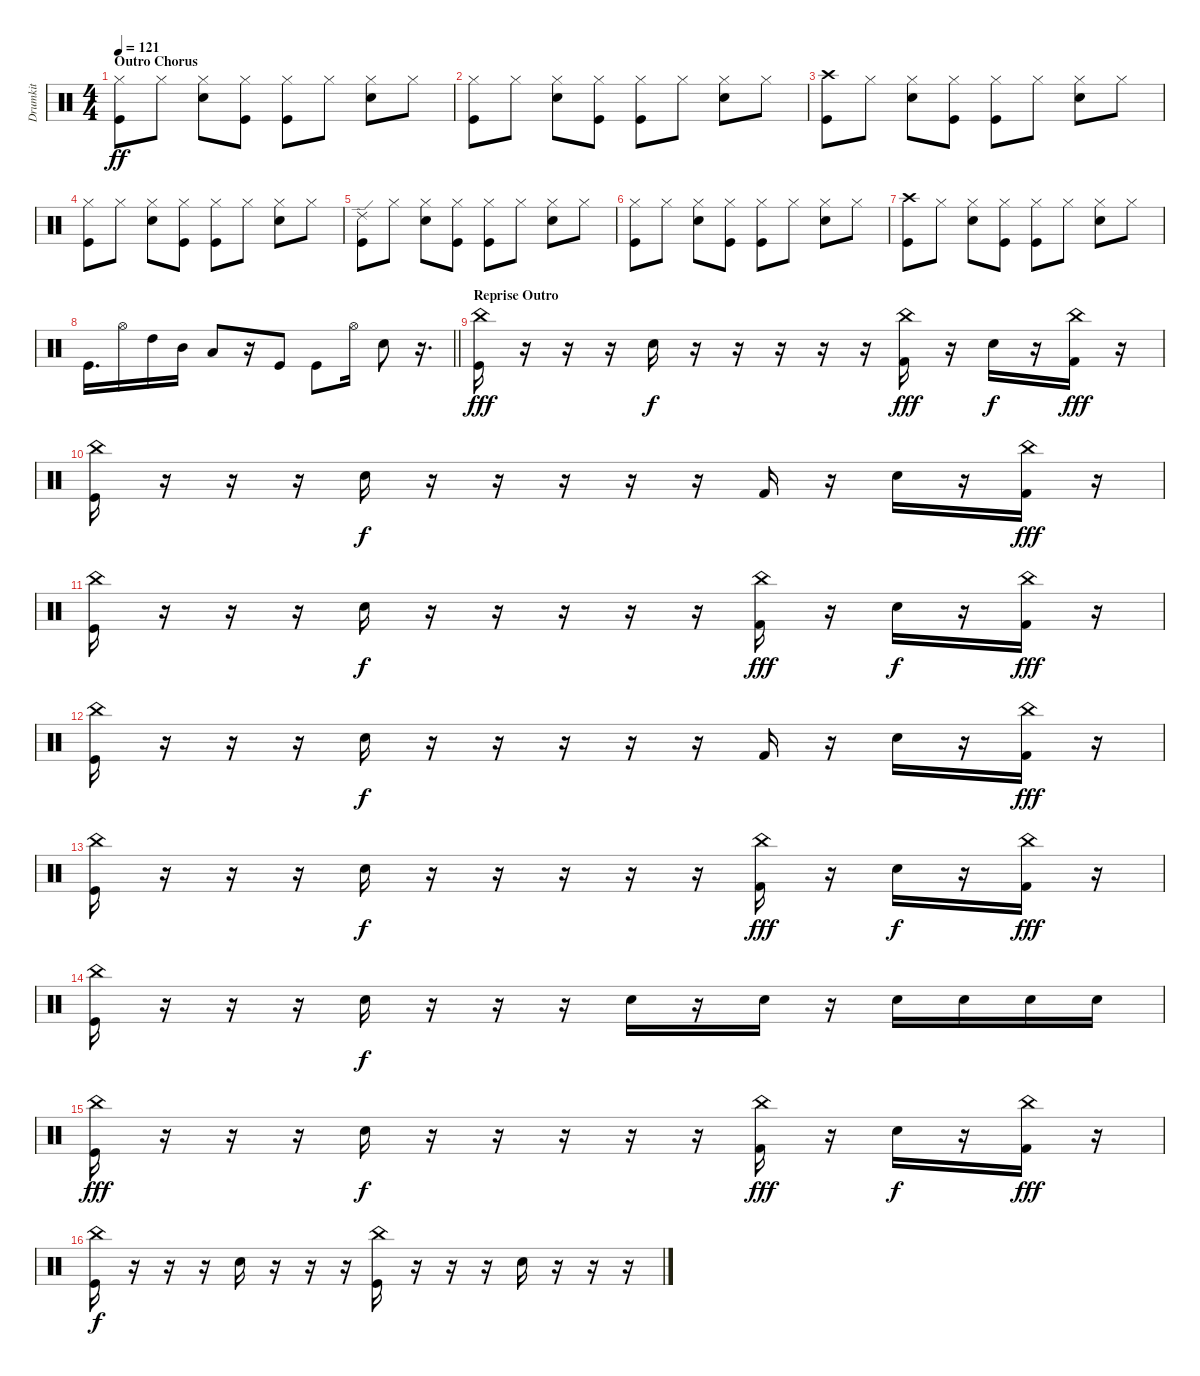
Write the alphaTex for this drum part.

\track ("Drumkit" "Drumkit") {instrument percussion}
\staff {score}
\articulation defaults
\ts (4 4)
\section ("" "Outro Chorus")
\tempo 121
\clef neutral
\ks c
("Kick (hit)" "Hi-Hat (closed)").8{dy ff} "Hi-Hat (closed)".8 ("Hi-Hat (closed)" "Snare (hit) 2").8 ("Kick (hit)" "Hi-Hat (closed)").8 ("Hi-Hat (closed)" "Kick (hit)").8 "Hi-Hat (closed)".8 ("Hi-Hat (closed)" "Snare (hit) 2").8 "Hi-Hat (closed)".8 |
("Kick (hit)" "Hi-Hat (closed)").8 "Hi-Hat (closed)".8 ("Hi-Hat (closed)" "Snare (hit) 2").8 ("Kick (hit)" "Hi-Hat (closed)").8 ("Hi-Hat (closed)" "Kick (hit)").8 "Hi-Hat (closed)".8 ("Hi-Hat (closed)" "Snare (hit) 2").8 "Hi-Hat (closed)".8 |
("Kick (hit)" "Crash high (hit)").8 "Hi-Hat (closed)".8 ("Hi-Hat (closed)" "Snare (hit) 2").8 ("Kick (hit)" "Hi-Hat (closed)").8 ("Hi-Hat (closed)" "Kick (hit)").8 "Hi-Hat (closed)".8 ("Hi-Hat (closed)" "Snare (hit) 2").8 "Hi-Hat (closed)".8 |
("Kick (hit)" "Hi-Hat (closed)").8 "Hi-Hat (closed)".8 ("Hi-Hat (closed)" "Snare (hit) 2").8 ("Kick (hit)" "Hi-Hat (closed)").8 ("Hi-Hat (closed)" "Kick (hit)").8 "Hi-Hat (closed)".8 ("Hi-Hat (closed)" "Snare (hit) 2").8 "Hi-Hat (closed)".8 |
("Kick (hit)" "Ride (edge) 2").8 "Hi-Hat (closed)".8 ("Hi-Hat (closed)" "Snare (hit) 2").8 ("Kick (hit)" "Hi-Hat (closed)").8 ("Hi-Hat (closed)" "Kick (hit)").8 "Hi-Hat (closed)".8 ("Hi-Hat (closed)" "Snare (hit) 2").8 "Hi-Hat (closed)".8 |
("Kick (hit)" "Hi-Hat (closed)").8 "Hi-Hat (closed)".8 ("Hi-Hat (closed)" "Snare (hit) 2").8 ("Kick (hit)" "Hi-Hat (closed)").8 ("Hi-Hat (closed)" "Kick (hit)").8 "Hi-Hat (closed)".8 ("Hi-Hat (closed)" "Snare (hit) 2").8 "Hi-Hat (closed)".8 |
("Kick (hit)" "Crash high (hit)").8 "Hi-Hat (closed)".8 ("Hi-Hat (closed)" "Snare (hit) 2").8 ("Kick (hit)" "Hi-Hat (closed)").8 ("Hi-Hat (closed)" "Kick (hit)").8 "Hi-Hat (closed)".8 ("Hi-Hat (closed)" "Snare (hit) 2").8 "Hi-Hat (closed)".8 |
\barLineRight lightlight "Kick (hit)".16{d} "Hi-Hat (open)".16 "High Tom (hit)".16 "Mid Tom (hit)".16 "Low Tom (hit)".8
r.16 "Kick (hit)".8 "Kick (hit)".8 "Hi-Hat (open)".16 "Snare (hit) 2".8 r.16{d} |
\section ("" "Reprise Outro")
("China (hit)" "Kick (hit)").16{dy fff} r.16 r.16 r.16 "Snare (hit) 2".16{dy f} r.16 r.16 r.16 r.16 r.16 ("China (hit)" "Kick (hit) 2").16{dy fff} r.16 "Snare (hit) 2".16{dy f} r.16 ("China (hit)" "Kick (hit) 2").16{dy fff} r.16 |
("China (hit)" "Kick (hit)").16 r.16 r.16 r.16 "Snare (hit) 2".16{dy f} r.16 r.16 r.16 r.16 r.16 "Kick (hit) 2".16 r.16 "Snare (hit) 2".16 r.16 ("China (hit)" "Kick (hit) 2").16{dy fff} r.16 |
("China (hit)" "Kick (hit)").16 r.16 r.16 r.16 "Snare (hit) 2".16{dy f} r.16 r.16 r.16 r.16 r.16 ("China (hit)" "Kick (hit) 2").16{dy fff} r.16 "Snare (hit) 2".16{dy f} r.16 ("China (hit)" "Kick (hit) 2").16{dy fff} r.16 |
("China (hit)" "Kick (hit)").16 r.16 r.16 r.16 "Snare (hit) 2".16{dy f} r.16 r.16 r.16 r.16 r.16 "Kick (hit) 2".16 r.16 "Snare (hit) 2".16 r.16 ("China (hit)" "Kick (hit) 2").16{dy fff} r.16 |
("China (hit)" "Kick (hit)").16 r.16 r.16 r.16 "Snare (hit) 2".16{dy f} r.16 r.16 r.16 r.16 r.16 ("China (hit)" "Kick (hit) 2").16{dy fff} r.16 "Snare (hit) 2".16{dy f} r.16 ("China (hit)" "Kick (hit) 2").16{dy fff} r.16 |
("China (hit)" "Kick (hit)").16 r.16 r.16 r.16 "Snare (hit) 2".16{dy f} r.16 r.16 r.16 "Snare (hit) 2".16 r.16 "Snare (hit) 2".16 r.16 "Snare (hit) 2".16 "Snare (hit) 2".16 "Snare (hit) 2".16 "Snare (hit) 2".16 |
("China (hit)" "Kick (hit)").16{dy fff} r.16 r.16 r.16 "Snare (hit) 2".16{dy f} r.16 r.16 r.16 r.16 r.16 ("China (hit)" "Kick (hit) 2").16{dy fff} r.16 "Snare (hit) 2".16{dy f} r.16 ("China (hit)" "Kick (hit) 2").16{dy fff} r.16 |
("China (hit)" "Kick (hit)").16{dy f} r.16 r.16 r.16 "Snare (hit) 2".16 r.16 r.16 r.16 ("China (hit)" "Kick (hit)").16 r.16 r.16 r.16 "Snare (hit) 2".16 r.16 r.16 r.16
